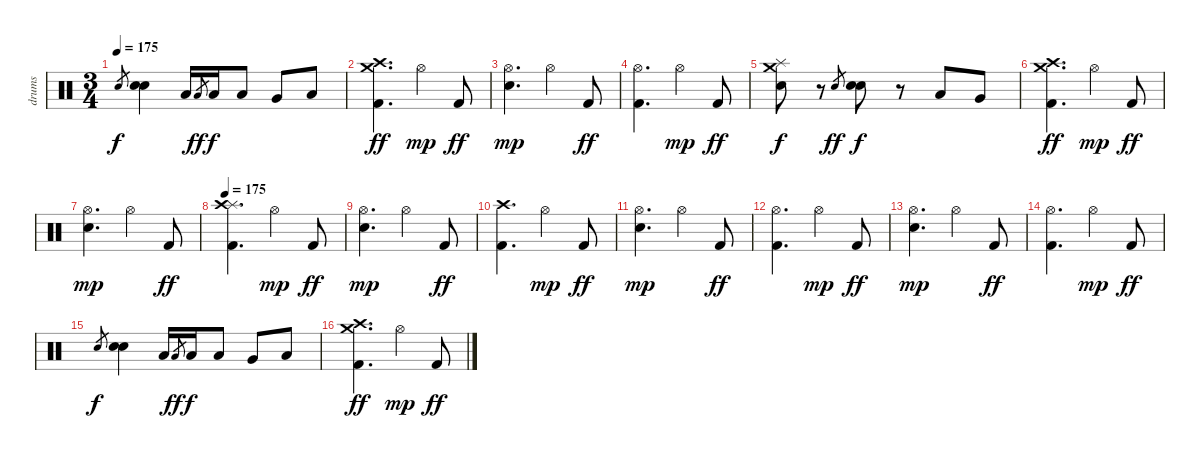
\track ("drums" "drums") {instrument percussion}
\staff {score}
\articulation defaults
\ts (3 4)
\tempo 175
\clef neutral
\ks c "Snare (hit) 2".8{gr dy f}
("Snare (hit) 2" "Snare (hit) 2").4 "Low Tom (hit)".16 "Low Tom (hit)".8{gr dy ff} "Low Tom (hit)".16{dy f} "Low Tom (hit)".8 "Very Low Tom (hit)".8 "Low Floor Tom (hit)".8 |
("Crash medium (hit)" "Crash high (hit)" "Kick (hit) 2").4{d dy ff} "Hi-Hat (open)".4{dy mp} "Kick (hit) 2".8{dy ff} |
("Hi-Hat (open)" "Snare (hit) 2").4{d dy mp} "Hi-Hat (open)".4 "Kick (hit) 2".8{dy ff} |
("Hi-Hat (open)" "Kick (hit) 2").4{d} "Hi-Hat (open)".4{dy mp} "Kick (hit) 2".8{dy ff} |
("Splash (hit)" "Crash medium (hit)" "Snare (hit) 2").8{dy f} r.8 "Snare (hit) 2".8{gr dy ff} ("Snare (hit) 2" "Snare (hit) 2").8{dy f} r.8 "Low Tom (hit)".8 "Very Low Tom (hit)".8 |
("Crash medium (hit)" "Crash high (hit)" "Kick (hit) 2").4{d dy ff} "Hi-Hat (open)".4{dy mp} "Kick (hit) 2".8{dy ff} |
("Hi-Hat (open)" "Snare (hit) 2").4{d dy mp} "Hi-Hat (open)".4 "Kick (hit) 2".8{dy ff} |
\tempo 175
("Splash (hit)" "Crash high (hit)" "Kick (hit) 2").4{d} "Hi-Hat (open)".4{dy mp} "Kick (hit) 2".8{dy ff} |
("Hi-Hat (open)" "Snare (hit) 2").4{d dy mp} "Hi-Hat (open)".4 "Kick (hit) 2".8{dy ff} |
("Crash high (hit)" "Kick (hit) 2").4{d} "Hi-Hat (open)".4{dy mp} "Kick (hit) 2".8{dy ff} |
("Hi-Hat (open)" "Snare (hit) 2").4{d dy mp} "Hi-Hat (open)".4 "Kick (hit) 2".8{dy ff} |
("Hi-Hat (open)" "Kick (hit) 2").4{d} "Hi-Hat (open)".4{dy mp} "Kick (hit) 2".8{dy ff} |
("Hi-Hat (open)" "Snare (hit) 2").4{d dy mp} "Hi-Hat (open)".4 "Kick (hit) 2".8{dy ff} |
("Hi-Hat (open)" "Kick (hit) 2").4{d} "Hi-Hat (open)".4{dy mp} "Kick (hit) 2".8{dy ff} |
"Snare (hit) 2".8{gr dy f} ("Snare (hit) 2" "Snare (hit) 2").4 "Low Tom (hit)".16 "Low Tom (hit)".8{gr dy ff} "Low Tom (hit)".16{dy f} "Low Tom (hit)".8 "Very Low Tom (hit)".8 "Low Floor Tom (hit)".8 |
("Crash medium (hit)" "Crash high (hit)" "Kick (hit) 2").4{d dy ff} "Hi-Hat (open)".4{dy mp} "Kick (hit) 2".8{dy ff}
